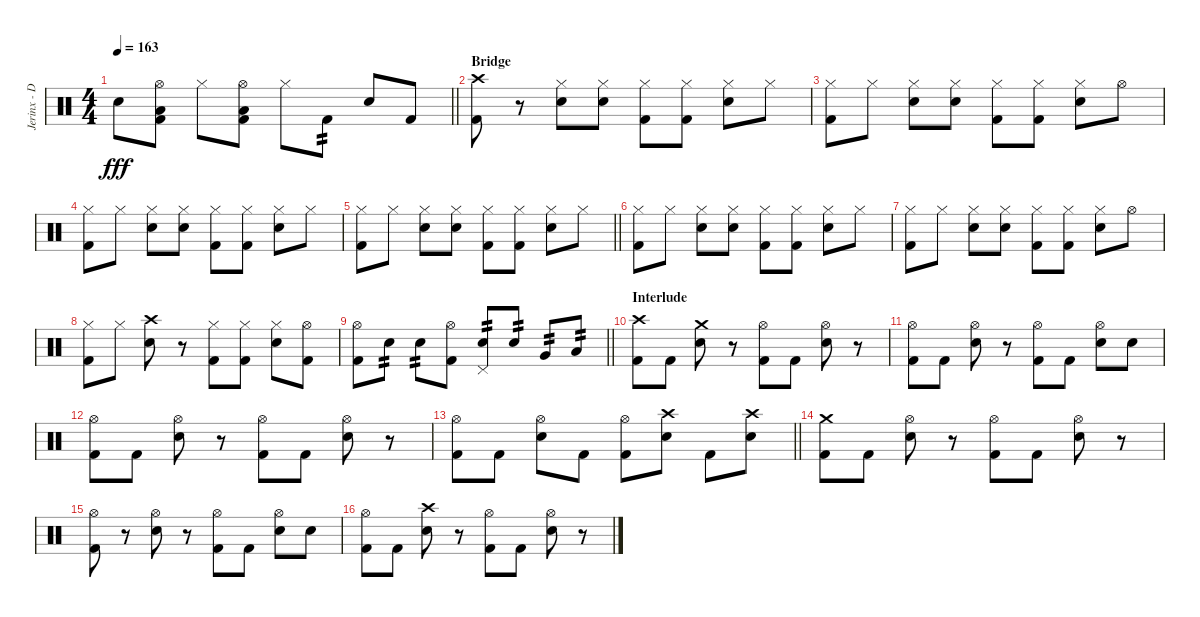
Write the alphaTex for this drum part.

\track ("Jerinx - Drum" "Jerinx - D") {instrument percussion}
\staff {score}
\articulation defaults
\ts (4 4)
\tempo 163
\clef neutral
\barLineRight lightlight
\ks c "Snare (hit) 2".8{dy fff}
("Hi-Hat (open)" "Kick (hit) 2" "Low Floor Tom (hit)").8 "Hi-Hat (closed)".8 ("Hi-Hat (open)" "Kick (hit) 2" "Low Floor Tom (hit)").8 "Hi-Hat (closed)".8 "Kick (hit) 2".8{tp 2} "Snare (hit) 2".8 "Kick (hit) 2".8 |
\section ("" "Bridge")
("Kick (hit) 2" "Crash high (hit)").8 r.8 ("Hi-Hat (closed)" "Snare (hit) 2").8 ("Hi-Hat (closed)" "Snare (hit) 2").8 ("Hi-Hat (closed)" "Kick (hit) 2").8 ("Hi-Hat (closed)" "Kick (hit) 2").8 ("Hi-Hat (closed)" "Snare (hit) 2").8 "Hi-Hat (closed)".8 |
("Hi-Hat (closed)" "Kick (hit) 2").8 "Hi-Hat (closed)".8 ("Hi-Hat (closed)" "Snare (hit) 2").8 ("Hi-Hat (closed)" "Snare (hit) 2").8 ("Hi-Hat (closed)" "Kick (hit) 2").8 ("Hi-Hat (closed)" "Kick (hit) 2").8 ("Hi-Hat (closed)" "Snare (hit) 2").8 "Hi-Hat (open)".8 |
("Hi-Hat (closed)" "Kick (hit) 2").8 "Hi-Hat (closed)".8 ("Hi-Hat (closed)" "Snare (hit) 2").8 ("Hi-Hat (closed)" "Snare (hit) 2").8 ("Hi-Hat (closed)" "Kick (hit) 2").8 ("Hi-Hat (closed)" "Kick (hit) 2").8 ("Hi-Hat (closed)" "Snare (hit) 2").8 "Hi-Hat (closed)".8 |
\barLineRight lightlight
("Hi-Hat (closed)" "Kick (hit) 2").8 "Hi-Hat (closed)".8 ("Hi-Hat (closed)" "Snare (hit) 2").8 ("Hi-Hat (closed)" "Snare (hit) 2").8 ("Hi-Hat (closed)" "Kick (hit) 2").8 ("Hi-Hat (closed)" "Kick (hit) 2").8 ("Hi-Hat (closed)" "Snare (hit) 2").8 "Hi-Hat (closed)".8 |
("Hi-Hat (closed)" "Kick (hit) 2").8 "Hi-Hat (closed)".8 ("Hi-Hat (closed)" "Snare (hit) 2").8 ("Hi-Hat (closed)" "Snare (hit) 2").8 ("Hi-Hat (closed)" "Kick (hit) 2").8 ("Hi-Hat (closed)" "Kick (hit) 2").8 ("Hi-Hat (closed)" "Snare (hit) 2").8 "Hi-Hat (closed)".8 |
("Hi-Hat (closed)" "Kick (hit) 2").8 "Hi-Hat (closed)".8 ("Hi-Hat (closed)" "Snare (hit) 2").8 ("Hi-Hat (closed)" "Snare (hit) 2").8 ("Hi-Hat (closed)" "Kick (hit) 2").8 ("Hi-Hat (closed)" "Kick (hit) 2").8 ("Hi-Hat (closed)" "Snare (hit) 2").8 "Hi-Hat (open)".8 |
("Hi-Hat (closed)" "Kick (hit) 2").8 "Hi-Hat (closed)".8 ("Snare (hit) 2" "Crash high (hit)").8 r.8 ("Hi-Hat (closed)" "Kick (hit) 2").8 ("Hi-Hat (closed)" "Kick (hit) 2").8 ("Hi-Hat (closed)" "Snare (hit) 2").8 ("Hi-Hat (open)" "Kick (hit) 2").8 |
\barLineRight lightlight
("Hi-Hat (open)" "Kick (hit) 2").8 "Snare (hit) 2".8{tp 2} "Snare (hit) 2".8{tp 2} ("Hi-Hat (open)" "Kick (hit) 2").8 ("Pedal Hi-Hat (hit)" "Snare (hit) 2").8{tp 2} "Snare (hit) 2".8{tp 2} "Very Low Tom (hit)".8{tp 2} "Low Floor Tom (hit)".8{tp 2} |
\section ("" "Interlude")
("Kick (hit) 2" "Crash high (hit)").8 "Kick (hit) 2".8 ("Snare (hit) 2" "Crash medium (hit)").8 r.8 ("Hi-Hat (open)" "Kick (hit) 2").8 "Kick (hit) 2".8 ("Hi-Hat (open)" "Snare (hit) 2").8 r.8 |
("Hi-Hat (open)" "Kick (hit) 2").8 "Kick (hit) 2".8 ("Hi-Hat (open)" "Snare (hit) 2").8 r.8 ("Hi-Hat (open)" "Kick (hit) 2").8 "Kick (hit) 2".8 ("Hi-Hat (open)" "Snare (hit) 2").8 "Snare (hit) 2".8 |
("Hi-Hat (open)" "Kick (hit) 2").8 "Kick (hit) 2".8 ("Hi-Hat (open)" "Snare (hit) 2").8 r.8 ("Hi-Hat (open)" "Kick (hit) 2").8 "Kick (hit) 2".8 ("Hi-Hat (open)" "Snare (hit) 2").8 r.8 |
\barLineRight lightlight
("Hi-Hat (open)" "Kick (hit) 2").8 "Kick (hit) 2".8 ("Hi-Hat (open)" "Snare (hit) 2").8 "Kick (hit) 2".8 ("Hi-Hat (open)" "Kick (hit) 2").8 ("Snare (hit) 2" "Crash high (hit)").8 "Kick (hit) 2".8 ("Snare (hit) 2" "Crash high (hit)").8 |
("Kick (hit) 2" "Crash medium (hit)").8 "Kick (hit) 2".8 ("Hi-Hat (open)" "Snare (hit) 2").8 r.8 ("Hi-Hat (open)" "Kick (hit) 2").8 "Kick (hit) 2".8 ("Hi-Hat (open)" "Snare (hit) 2").8 r.8 |
("Hi-Hat (open)" "Kick (hit) 2").8 r.8 ("Hi-Hat (open)" "Snare (hit) 2").8 r.8 ("Hi-Hat (open)" "Kick (hit) 2").8 "Kick (hit) 2".8 ("Hi-Hat (open)" "Snare (hit) 2").8 "Snare (hit) 2".8 |
("Hi-Hat (open)" "Kick (hit) 2").8 "Kick (hit) 2".8 ("Snare (hit) 2" "Crash high (hit)").8 r.8 ("Hi-Hat (open)" "Kick (hit) 2").8 "Kick (hit) 2".8 ("Hi-Hat (open)" "Snare (hit) 2").8 r.8
